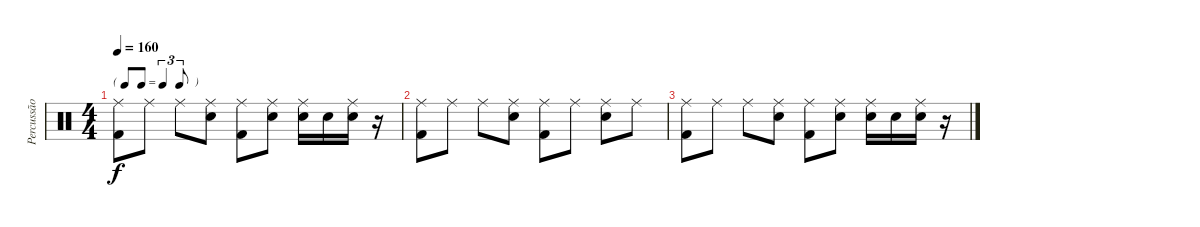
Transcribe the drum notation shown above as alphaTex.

\track ("Percussão" "Percussão") {instrument percussion}
\staff {score}
\articulation defaults
\ts (4 4)
\tf triplet8th
\tempo 160
\clef neutral
\ks c
("Ride (middle)" "Kick (hit) 2").8{dy f} "Ride (middle)".8 "Ride (middle)".8 ("Ride (middle)" "Snare (hit) 2").8 ("Ride (middle)" "Kick (hit) 2").8 ("Ride (middle)" "Snare (hit) 2").8 ("Ride (middle)" "Snare (hit) 2").16 "Snare (hit) 2".16 ("Ride (middle)" "Snare (hit) 2").16 r.16 |
("Ride (middle)" "Kick (hit) 2").8 "Ride (middle)".8 "Ride (middle)".8 ("Ride (middle)" "Snare (hit) 2").8 ("Ride (middle)" "Kick (hit) 2").8 "Ride (middle)".8 ("Ride (middle)" "Snare (hit) 2").8 "Ride (middle)".8 |
("Ride (middle)" "Kick (hit) 2").8 "Ride (middle)".8 "Ride (middle)".8 ("Ride (middle)" "Snare (hit) 2").8 ("Ride (middle)" "Kick (hit) 2").8 ("Ride (middle)" "Snare (hit) 2").8 ("Ride (middle)" "Snare (hit) 2").16 "Snare (hit) 2".16 ("Ride (middle)" "Snare (hit) 2").16 r.16
